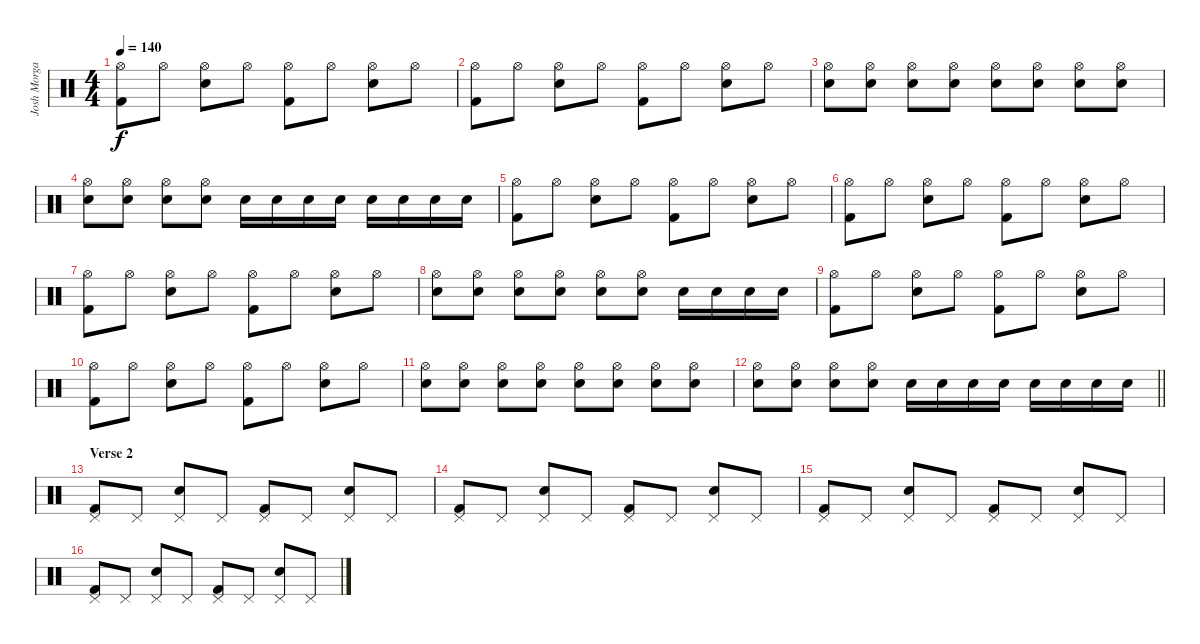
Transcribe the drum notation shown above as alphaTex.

\track ("Josh Morgan" "Josh Morga") {instrument percussion}
\staff {score}
\articulation defaults
\ts (4 4)
\tempo 140
\clef neutral
\ks c
("Hi-Hat (open)" "Kick (hit) 2").8{dy f} "Hi-Hat (open)".8 ("Hi-Hat (open)" "Electric Snare (hit)").8 "Hi-Hat (open)".8 ("Hi-Hat (open)" "Kick (hit) 2").8 "Hi-Hat (open)".8 ("Hi-Hat (open)" "Electric Snare (hit)").8 "Hi-Hat (open)".8 |
("Hi-Hat (open)" "Kick (hit) 2").8 "Hi-Hat (open)".8 ("Hi-Hat (open)" "Electric Snare (hit)").8 "Hi-Hat (open)".8 ("Hi-Hat (open)" "Kick (hit) 2").8 "Hi-Hat (open)".8 ("Hi-Hat (open)" "Electric Snare (hit)").8 "Hi-Hat (open)".8 |
("Hi-Hat (open)" "Electric Snare (hit)").8 ("Hi-Hat (open)" "Electric Snare (hit)").8 ("Hi-Hat (open)" "Electric Snare (hit)").8 ("Hi-Hat (open)" "Electric Snare (hit)").8 ("Hi-Hat (open)" "Electric Snare (hit)").8 ("Hi-Hat (open)" "Electric Snare (hit)").8 ("Hi-Hat (open)" "Electric Snare (hit)").8 ("Hi-Hat (open)" "Electric Snare (hit)").8 |
("Hi-Hat (open)" "Electric Snare (hit)").8 ("Hi-Hat (open)" "Electric Snare (hit)").8 ("Hi-Hat (open)" "Electric Snare (hit)").8 ("Hi-Hat (open)" "Electric Snare (hit)").8 "Electric Snare (hit)".16 "Electric Snare (hit)".16 "Electric Snare (hit)".16 "Electric Snare (hit)".16 "Electric Snare (hit)".16 "Electric Snare (hit)".16 "Electric Snare (hit)".16 "Electric Snare (hit)".16 |
("Hi-Hat (open)" "Kick (hit) 2").8 "Hi-Hat (open)".8 ("Hi-Hat (open)" "Electric Snare (hit)").8 "Hi-Hat (open)".8 ("Hi-Hat (open)" "Kick (hit) 2").8 "Hi-Hat (open)".8 ("Hi-Hat (open)" "Electric Snare (hit)").8 "Hi-Hat (open)".8 |
("Hi-Hat (open)" "Kick (hit) 2").8 "Hi-Hat (open)".8 ("Hi-Hat (open)" "Electric Snare (hit)").8 "Hi-Hat (open)".8 ("Hi-Hat (open)" "Kick (hit) 2").8 "Hi-Hat (open)".8 ("Hi-Hat (open)" "Electric Snare (hit)").8 "Hi-Hat (open)".8 |
("Hi-Hat (open)" "Kick (hit) 2").8 "Hi-Hat (open)".8 ("Hi-Hat (open)" "Electric Snare (hit)").8 "Hi-Hat (open)".8 ("Hi-Hat (open)" "Kick (hit) 2").8 "Hi-Hat (open)".8 ("Hi-Hat (open)" "Electric Snare (hit)").8 "Hi-Hat (open)".8 |
("Hi-Hat (open)" "Electric Snare (hit)").8 ("Hi-Hat (open)" "Electric Snare (hit)").8 ("Hi-Hat (open)" "Electric Snare (hit)").8 ("Hi-Hat (open)" "Electric Snare (hit)").8 ("Hi-Hat (open)" "Electric Snare (hit)").8 ("Hi-Hat (open)" "Electric Snare (hit)").8 "Electric Snare (hit)".16 "Electric Snare (hit)".16 "Electric Snare (hit)".16 "Electric Snare (hit)".16 |
("Hi-Hat (open)" "Kick (hit) 2").8 "Hi-Hat (open)".8 ("Hi-Hat (open)" "Electric Snare (hit)").8 "Hi-Hat (open)".8 ("Hi-Hat (open)" "Kick (hit) 2").8 "Hi-Hat (open)".8 ("Hi-Hat (open)" "Electric Snare (hit)").8 "Hi-Hat (open)".8 |
("Hi-Hat (open)" "Kick (hit) 2").8 "Hi-Hat (open)".8 ("Hi-Hat (open)" "Electric Snare (hit)").8 "Hi-Hat (open)".8 ("Hi-Hat (open)" "Kick (hit) 2").8 "Hi-Hat (open)".8 ("Hi-Hat (open)" "Electric Snare (hit)").8 "Hi-Hat (open)".8 |
("Hi-Hat (open)" "Electric Snare (hit)").8 ("Hi-Hat (open)" "Electric Snare (hit)").8 ("Hi-Hat (open)" "Electric Snare (hit)").8 ("Hi-Hat (open)" "Electric Snare (hit)").8 ("Hi-Hat (open)" "Electric Snare (hit)").8 ("Hi-Hat (open)" "Electric Snare (hit)").8 ("Hi-Hat (open)" "Electric Snare (hit)").8 ("Hi-Hat (open)" "Electric Snare (hit)").8 |
\barLineRight lightlight
("Hi-Hat (open)" "Electric Snare (hit)").8 ("Hi-Hat (open)" "Electric Snare (hit)").8 ("Hi-Hat (open)" "Electric Snare (hit)").8 ("Hi-Hat (open)" "Electric Snare (hit)").8 "Electric Snare (hit)".16 "Electric Snare (hit)".16 "Electric Snare (hit)".16 "Electric Snare (hit)".16 "Electric Snare (hit)".16 "Electric Snare (hit)".16 "Electric Snare (hit)".16 "Electric Snare (hit)".16 |
\section ("" "Verse 2")
("Pedal Hi-Hat (hit)" "Kick (hit) 2").8 "Pedal Hi-Hat (hit)".8 ("Pedal Hi-Hat (hit)" "Electric Snare (hit)").8 "Pedal Hi-Hat (hit)".8 ("Pedal Hi-Hat (hit)" "Kick (hit) 2").8 "Pedal Hi-Hat (hit)".8 ("Pedal Hi-Hat (hit)" "Electric Snare (hit)").8 "Pedal Hi-Hat (hit)".8 |
("Pedal Hi-Hat (hit)" "Kick (hit) 2").8 "Pedal Hi-Hat (hit)".8 ("Pedal Hi-Hat (hit)" "Electric Snare (hit)").8 "Pedal Hi-Hat (hit)".8 ("Pedal Hi-Hat (hit)" "Kick (hit) 2").8 "Pedal Hi-Hat (hit)".8 ("Pedal Hi-Hat (hit)" "Electric Snare (hit)").8 "Pedal Hi-Hat (hit)".8 |
("Pedal Hi-Hat (hit)" "Kick (hit) 2").8 "Pedal Hi-Hat (hit)".8 ("Pedal Hi-Hat (hit)" "Electric Snare (hit)").8 "Pedal Hi-Hat (hit)".8 ("Pedal Hi-Hat (hit)" "Kick (hit) 2").8 "Pedal Hi-Hat (hit)".8 ("Pedal Hi-Hat (hit)" "Electric Snare (hit)").8 "Pedal Hi-Hat (hit)".8 |
("Pedal Hi-Hat (hit)" "Kick (hit) 2").8 "Pedal Hi-Hat (hit)".8 ("Pedal Hi-Hat (hit)" "Electric Snare (hit)").8 "Pedal Hi-Hat (hit)".8 ("Pedal Hi-Hat (hit)" "Kick (hit) 2").8 "Pedal Hi-Hat (hit)".8 ("Pedal Hi-Hat (hit)" "Electric Snare (hit)").8 "Pedal Hi-Hat (hit)".8
